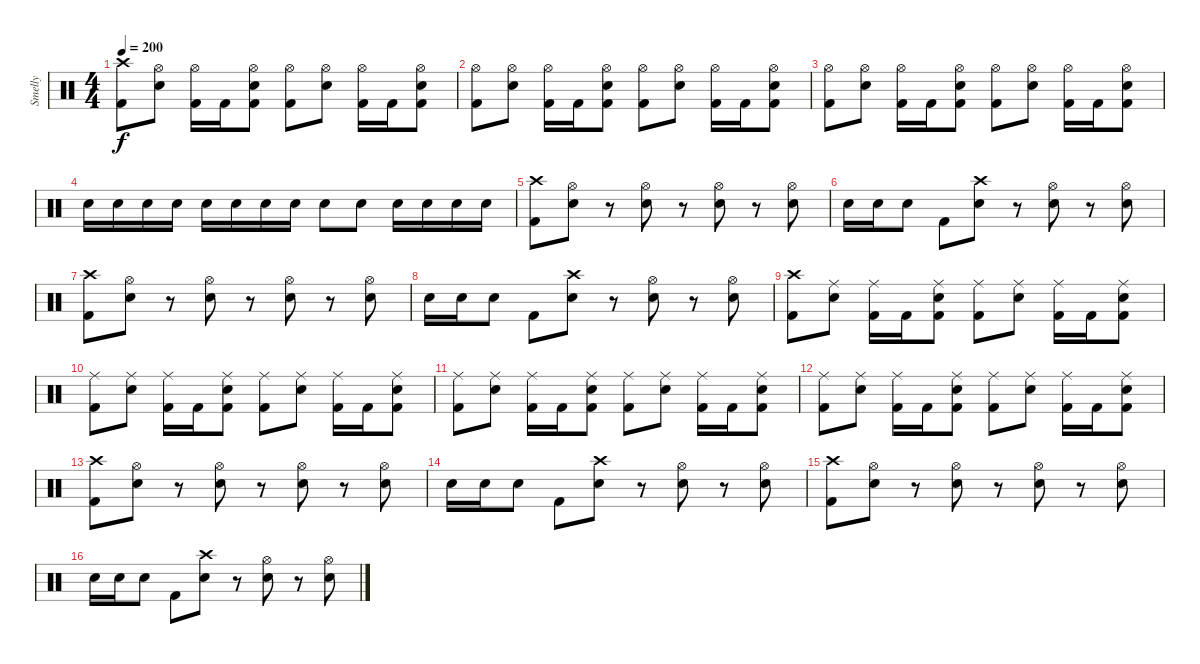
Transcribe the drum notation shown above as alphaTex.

\track ("Smelly" "Smelly") {instrument percussion}
\staff {score}
\articulation defaults
\ts (4 4)
\tempo 200
\clef neutral
\ks c
("Crash high (hit)" "Kick (hit) 2").8{dy f} ("Hi-Hat (open)" "Electric Snare (hit)").8 ("Hi-Hat (open)" "Kick (hit) 2").16 "Kick (hit) 2".16 ("Hi-Hat (open)" "Electric Snare (hit)" "Kick (hit) 2").8 ("Hi-Hat (open)" "Kick (hit) 2").8 ("Hi-Hat (open)" "Electric Snare (hit)").8 ("Hi-Hat (open)" "Kick (hit) 2").16 "Kick (hit) 2".16 ("Hi-Hat (open)" "Electric Snare (hit)" "Kick (hit) 2").8 |
("Hi-Hat (open)" "Kick (hit) 2").8 ("Hi-Hat (open)" "Electric Snare (hit)").8 ("Hi-Hat (open)" "Kick (hit) 2").16 "Kick (hit) 2".16 ("Hi-Hat (open)" "Electric Snare (hit)" "Kick (hit) 2").8 ("Hi-Hat (open)" "Kick (hit) 2").8 ("Hi-Hat (open)" "Electric Snare (hit)").8 ("Hi-Hat (open)" "Kick (hit) 2").16 "Kick (hit) 2".16 ("Hi-Hat (open)" "Electric Snare (hit)" "Kick (hit) 2").8 |
("Hi-Hat (open)" "Kick (hit) 2").8 ("Hi-Hat (open)" "Electric Snare (hit)").8 ("Hi-Hat (open)" "Kick (hit) 2").16 "Kick (hit) 2".16 ("Hi-Hat (open)" "Electric Snare (hit)" "Kick (hit) 2").8 ("Hi-Hat (open)" "Kick (hit) 2").8 ("Hi-Hat (open)" "Electric Snare (hit)").8 ("Hi-Hat (open)" "Kick (hit) 2").16 "Kick (hit) 2".16 ("Hi-Hat (open)" "Electric Snare (hit)" "Kick (hit) 2").8 |
"Electric Snare (hit)".16 "Electric Snare (hit)".16 "Electric Snare (hit)".16 "Electric Snare (hit)".16 "Electric Snare (hit)".16 "Electric Snare (hit)".16 "Electric Snare (hit)".16 "Electric Snare (hit)".16 "Electric Snare (hit)".8 "Electric Snare (hit)".8 "Electric Snare (hit)".16 "Electric Snare (hit)".16 "Electric Snare (hit)".16 "Electric Snare (hit)".16 |
("Crash high (hit)" "Kick (hit) 2").8 ("Hi-Hat (open)" "Electric Snare (hit)").8 r.8 ("Hi-Hat (open)" "Electric Snare (hit)").8 r.8 ("Hi-Hat (open)" "Electric Snare (hit)").8 r.8 ("Hi-Hat (open)" "Electric Snare (hit)").8 |
"Electric Snare (hit)".16 "Electric Snare (hit)".16 "Electric Snare (hit)".8 "Kick (hit) 2".8 ("Crash high (hit)" "Electric Snare (hit)").8 r.8 ("Hi-Hat (open)" "Electric Snare (hit)").8 r.8 ("Hi-Hat (open)" "Electric Snare (hit)").8 |
("Crash high (hit)" "Kick (hit) 2").8 ("Hi-Hat (open)" "Electric Snare (hit)").8 r.8 ("Hi-Hat (open)" "Electric Snare (hit)").8 r.8 ("Hi-Hat (open)" "Electric Snare (hit)").8 r.8 ("Hi-Hat (open)" "Electric Snare (hit)").8 |
"Electric Snare (hit)".16 "Electric Snare (hit)".16 "Electric Snare (hit)".8 "Kick (hit) 2".8 ("Crash high (hit)" "Electric Snare (hit)").8 r.8 ("Hi-Hat (open)" "Electric Snare (hit)").8 r.8 ("Hi-Hat (open)" "Electric Snare (hit)").8 |
("Crash high (hit)" "Kick (hit) 2").8 ("Ride (middle)" "Electric Snare (hit)").8 ("Ride (middle)" "Kick (hit) 2").16 "Kick (hit) 2".16 ("Ride (middle)" "Electric Snare (hit)" "Kick (hit) 2").8 ("Ride (middle)" "Kick (hit) 2").8 ("Ride (middle)" "Electric Snare (hit)").8 ("Ride (middle)" "Kick (hit) 2").16 "Kick (hit) 2".16 ("Ride (middle)" "Electric Snare (hit)" "Kick (hit) 2").8 |
("Ride (middle)" "Kick (hit) 2").8 ("Ride (middle)" "Electric Snare (hit)").8 ("Ride (middle)" "Kick (hit) 2").16 "Kick (hit) 2".16 ("Ride (middle)" "Electric Snare (hit)" "Kick (hit) 2").8 ("Ride (middle)" "Kick (hit) 2").8 ("Ride (middle)" "Electric Snare (hit)").8 ("Ride (middle)" "Kick (hit) 2").16 "Kick (hit) 2".16 ("Ride (middle)" "Electric Snare (hit)" "Kick (hit) 2").8 |
("Ride (middle)" "Kick (hit) 2").8 ("Ride (middle)" "Electric Snare (hit)").8 ("Ride (middle)" "Kick (hit) 2").16 "Kick (hit) 2".16 ("Ride (middle)" "Electric Snare (hit)" "Kick (hit) 2").8 ("Ride (middle)" "Kick (hit) 2").8 ("Ride (middle)" "Electric Snare (hit)").8 ("Ride (middle)" "Kick (hit) 2").16 "Kick (hit) 2".16 ("Ride (middle)" "Electric Snare (hit)" "Kick (hit) 2").8 |
("Ride (middle)" "Kick (hit) 2").8 ("Ride (middle)" "Electric Snare (hit)").8 ("Ride (middle)" "Kick (hit) 2").16 "Kick (hit) 2".16 ("Ride (middle)" "Electric Snare (hit)" "Kick (hit) 2").8 ("Ride (middle)" "Kick (hit) 2").8 ("Ride (middle)" "Electric Snare (hit)").8 ("Ride (middle)" "Kick (hit) 2").16 "Kick (hit) 2".16 ("Ride (middle)" "Electric Snare (hit)" "Kick (hit) 2").8 |
("Crash high (hit)" "Kick (hit) 2").8 ("Hi-Hat (open)" "Electric Snare (hit)").8 r.8 ("Hi-Hat (open)" "Electric Snare (hit)").8 r.8 ("Hi-Hat (open)" "Electric Snare (hit)").8 r.8 ("Hi-Hat (open)" "Electric Snare (hit)").8 |
"Electric Snare (hit)".16 "Electric Snare (hit)".16 "Electric Snare (hit)".8 "Kick (hit) 2".8 ("Crash high (hit)" "Electric Snare (hit)").8 r.8 ("Hi-Hat (open)" "Electric Snare (hit)").8 r.8 ("Hi-Hat (open)" "Electric Snare (hit)").8 |
("Crash high (hit)" "Kick (hit) 2").8 ("Hi-Hat (open)" "Electric Snare (hit)").8 r.8 ("Hi-Hat (open)" "Electric Snare (hit)").8 r.8 ("Hi-Hat (open)" "Electric Snare (hit)").8 r.8 ("Hi-Hat (open)" "Electric Snare (hit)").8 |
"Electric Snare (hit)".16 "Electric Snare (hit)".16 "Electric Snare (hit)".8 "Kick (hit) 2".8 ("Crash high (hit)" "Electric Snare (hit)").8 r.8 ("Hi-Hat (open)" "Electric Snare (hit)").8 r.8 ("Hi-Hat (open)" "Electric Snare (hit)").8
